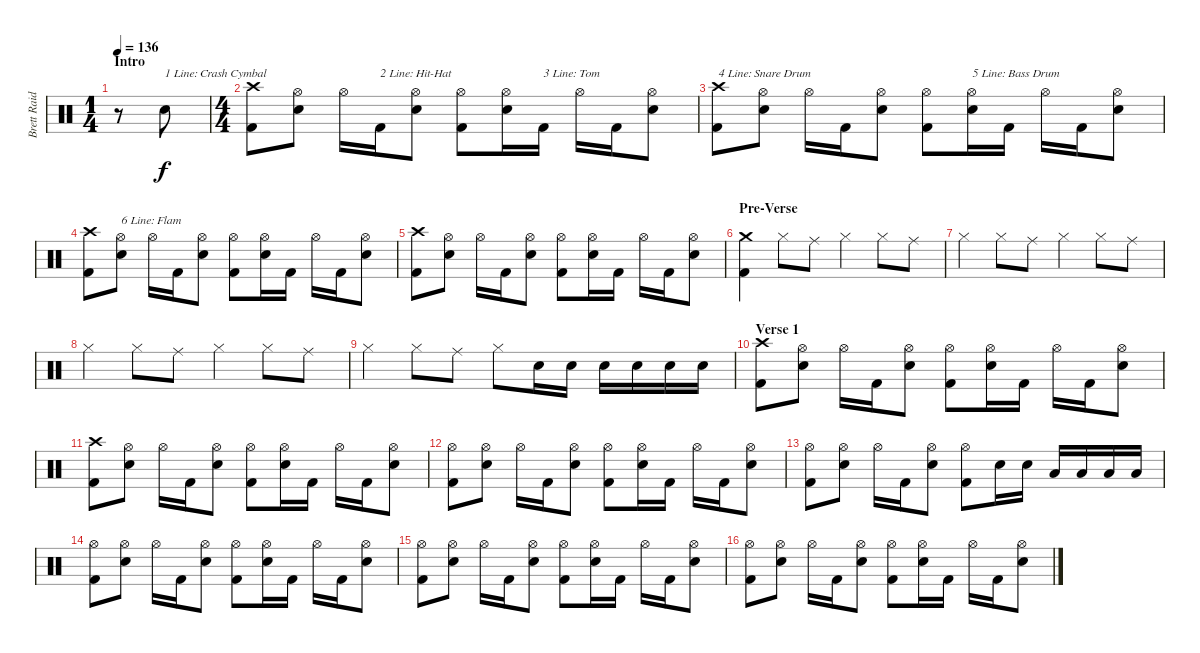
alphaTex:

\track ("Brett Raid (Drums)" "Brett Raid") {instrument percussion}
\staff {score}
\articulation defaults
\ts (1 4)
\section ("" "Intro")
\tempo 136
\clef neutral
\ks c
r.8{dy f} "Electric Snare (hit)".8{txt "1 Line: Crash Cymbal"} |
\ts (4 4)
("Crash high (hit)" "Kick (hit) 2").8 ("Hi-Hat (open)" "Electric Snare (hit)").8 "Hi-Hat (open)".16 "Kick (hit) 2".16{txt "2 Line: Hit-Hat"} ("Hi-Hat (open)" "Electric Snare (hit)").8 ("Hi-Hat (open)" "Kick (hit) 2").8 ("Hi-Hat (open)" "Electric Snare (hit)").16 "Kick (hit) 2".16{txt "3 Line: Tom"} "Hi-Hat (open)".16 "Kick (hit) 2".16 ("Hi-Hat (open)" "Electric Snare (hit)").8 |
("Crash high (hit)" "Kick (hit) 2").8{txt "4 Line: Snare Drum"} ("Hi-Hat (open)" "Electric Snare (hit)").8 "Hi-Hat (open)".16 "Kick (hit) 2".16 ("Hi-Hat (open)" "Electric Snare (hit)").8 ("Hi-Hat (open)" "Kick (hit) 2").8 ("Hi-Hat (open)" "Electric Snare (hit)").16{txt "5 Line: Bass Drum"} "Kick (hit) 2".16 "Hi-Hat (open)".16 "Kick (hit) 2".16 ("Hi-Hat (open)" "Electric Snare (hit)").8 |
("Crash high (hit)" "Kick (hit) 2").8 ("Hi-Hat (open)" "Electric Snare (hit)").8{txt "6 Line: Flam"} "Hi-Hat (open)".16 "Kick (hit) 2".16 ("Hi-Hat (open)" "Electric Snare (hit)").8 ("Hi-Hat (open)" "Kick (hit) 2").8 ("Hi-Hat (open)" "Electric Snare (hit)").16 "Kick (hit) 2".16 "Hi-Hat (open)".16 "Kick (hit) 2".16 ("Hi-Hat (open)" "Electric Snare (hit)").8 |
("Crash high (hit)" "Kick (hit) 2").8 ("Hi-Hat (open)" "Electric Snare (hit)").8 "Hi-Hat (open)".16 "Kick (hit) 2".16 ("Hi-Hat (open)" "Electric Snare (hit)").8 ("Hi-Hat (open)" "Kick (hit) 2").8 ("Hi-Hat (open)" "Electric Snare (hit)").16 "Kick (hit) 2".16 "Hi-Hat (open)".16 "Kick (hit) 2".16 ("Hi-Hat (open)" "Electric Snare (hit)").8 |
\section ("" "Pre-Verse")
("Crash medium (hit)" "Kick (hit) 2").4 "Hi-Hat (closed)".8 "Ride (middle)".8 "Hi-Hat (closed)".4 "Hi-Hat (closed)".8 "Ride (middle)".8 |
"Hi-Hat (closed)".4 "Hi-Hat (closed)".8 "Ride (middle)".8 "Hi-Hat (closed)".4 "Hi-Hat (closed)".8 "Ride (middle)".8 |
"Hi-Hat (closed)".4 "Hi-Hat (closed)".8 "Ride (middle)".8 "Hi-Hat (closed)".4 "Hi-Hat (closed)".8 "Ride (middle)".8 |
"Hi-Hat (closed)".4 "Hi-Hat (closed)".8 "Ride (middle)".8 "Hi-Hat (closed)".8 "Electric Snare (hit)".16 "Electric Snare (hit)".16 "Electric Snare (hit)".16 "Electric Snare (hit)".16 "Electric Snare (hit)".16 "Electric Snare (hit)".16 |
\section ("" "Verse 1")
("Crash high (hit)" "Kick (hit) 2").8 ("Hi-Hat (open)" "Electric Snare (hit)").8 "Hi-Hat (open)".16 "Kick (hit) 2".16 ("Hi-Hat (open)" "Electric Snare (hit)").8 ("Hi-Hat (open)" "Kick (hit) 2").8 ("Hi-Hat (open)" "Electric Snare (hit)").16 "Kick (hit) 2".16 "Hi-Hat (open)".16 "Kick (hit) 2".16 ("Hi-Hat (open)" "Electric Snare (hit)").8 |
("Crash high (hit)" "Kick (hit) 2").8 ("Hi-Hat (open)" "Electric Snare (hit)").8 "Hi-Hat (open)".16 "Kick (hit) 2".16 ("Hi-Hat (open)" "Electric Snare (hit)").8 ("Hi-Hat (open)" "Kick (hit) 2").8 ("Hi-Hat (open)" "Electric Snare (hit)").16 "Kick (hit) 2".16 "Hi-Hat (open)".16 "Kick (hit) 2".16 ("Hi-Hat (open)" "Electric Snare (hit)").8 |
("Hi-Hat (open)" "Kick (hit) 2").8 ("Hi-Hat (open)" "Electric Snare (hit)").8 "Hi-Hat (open)".16 "Kick (hit) 2".16 ("Hi-Hat (open)" "Electric Snare (hit)").8 ("Hi-Hat (open)" "Kick (hit) 2").8 ("Hi-Hat (open)" "Electric Snare (hit)").16 "Kick (hit) 2".16 "Hi-Hat (open)".16 "Kick (hit) 2".16 ("Hi-Hat (open)" "Electric Snare (hit)").8 |
("Hi-Hat (open)" "Kick (hit) 2").8 ("Hi-Hat (open)" "Electric Snare (hit)").8 "Hi-Hat (open)".16 "Kick (hit) 2".16 ("Hi-Hat (open)" "Electric Snare (hit)").8 ("Hi-Hat (open)" "Kick (hit) 2").8 "Electric Snare (hit)".16 "Electric Snare (hit)".16 "Low Tom (hit)".16 "Low Tom (hit)".16 "Low Floor Tom (hit)".16 "Low Floor Tom (hit)".16 |
("Hi-Hat (open)" "Kick (hit) 2").8 ("Hi-Hat (open)" "Electric Snare (hit)").8 "Hi-Hat (open)".16 "Kick (hit) 2".16 ("Hi-Hat (open)" "Electric Snare (hit)").8 ("Hi-Hat (open)" "Kick (hit) 2").8 ("Hi-Hat (open)" "Electric Snare (hit)").16 "Kick (hit) 2".16 "Hi-Hat (open)".16 "Kick (hit) 2".16 ("Hi-Hat (open)" "Electric Snare (hit)").8 |
("Hi-Hat (open)" "Kick (hit) 2").8 ("Hi-Hat (open)" "Electric Snare (hit)").8 "Hi-Hat (open)".16 "Kick (hit) 2".16 ("Hi-Hat (open)" "Electric Snare (hit)").8 ("Hi-Hat (open)" "Kick (hit) 2").8 ("Hi-Hat (open)" "Electric Snare (hit)").16 "Kick (hit) 2".16 "Hi-Hat (open)".16 "Kick (hit) 2".16 ("Hi-Hat (open)" "Electric Snare (hit)").8 |
("Hi-Hat (open)" "Kick (hit) 2").8 ("Hi-Hat (open)" "Electric Snare (hit)").8 "Hi-Hat (open)".16 "Kick (hit) 2".16 ("Hi-Hat (open)" "Electric Snare (hit)").8 ("Hi-Hat (open)" "Kick (hit) 2").8 ("Hi-Hat (open)" "Electric Snare (hit)").16 "Kick (hit) 2".16 "Hi-Hat (open)".16 "Kick (hit) 2".16 ("Hi-Hat (open)" "Electric Snare (hit)").8
